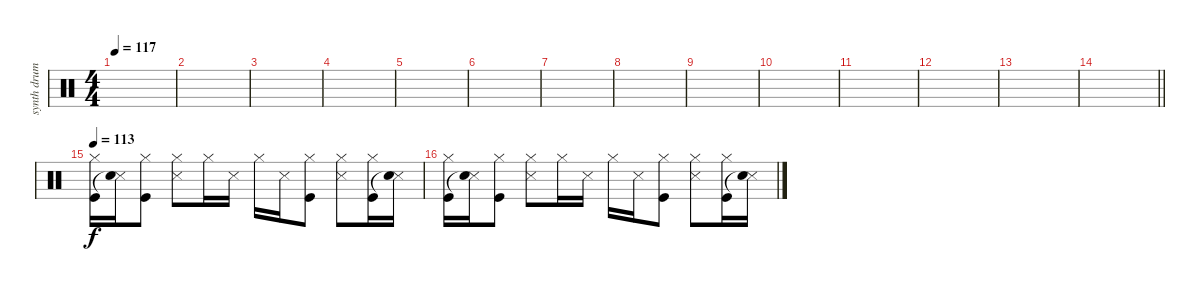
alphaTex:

\track ("synth drums" "synth drum") {instrument percussion}
\staff {score}
\articulation defaults
\ts (4 4)
\tempo 117
\clef neutral
\ks c
|
|
|
|
|
|
|
|
|
|
|
|
|
\barLineRight lightlight
|
\tempo 113
("Hi-Hat (closed)" "Kick (hit)").16 ("Metronome (hit)" "Snare (hit)"{t}).16 ("Hi-Hat (closed)" "Kick (hit)").8 ("Hi-Hat (closed)" "Metronome (hit)").8 "Hi-Hat (closed)".16 "Metronome (hit)".16 "Hi-Hat (closed)".16 "Metronome (hit)".16 ("Hi-Hat (closed)" "Kick (hit)").8 ("Hi-Hat (closed)" "Metronome (hit)").8 ("Hi-Hat (closed)" "Kick (hit)").16 ("Metronome (hit)" "Snare (hit)"{t}).16 |
("Hi-Hat (closed)" "Kick (hit)").16 ("Metronome (hit)" "Snare (hit)"{t}).16 ("Hi-Hat (closed)" "Kick (hit)").8 ("Hi-Hat (closed)" "Metronome (hit)").8 "Hi-Hat (closed)".16 "Metronome (hit)".16 "Hi-Hat (closed)".16 "Metronome (hit)".16 ("Hi-Hat (closed)" "Kick (hit)").8 ("Hi-Hat (closed)" "Metronome (hit)").8 ("Hi-Hat (closed)" "Kick (hit)").16 ("Metronome (hit)" "Snare (hit)"{t}).16
